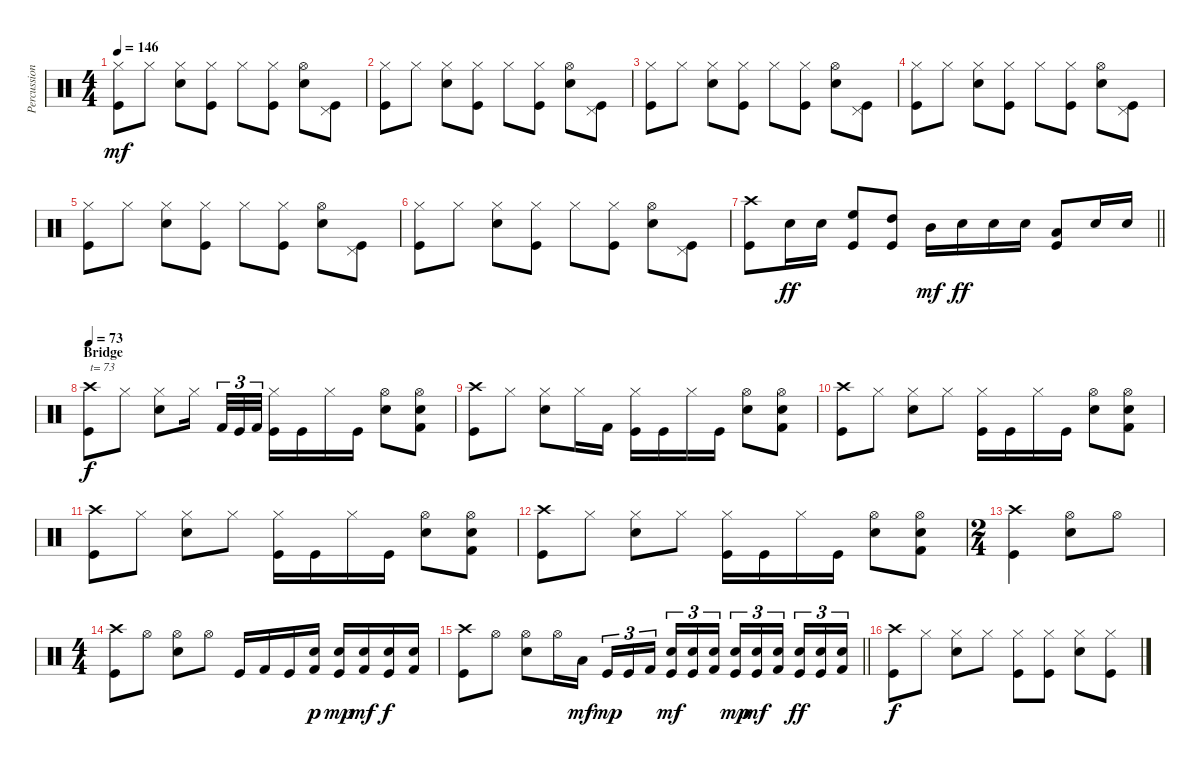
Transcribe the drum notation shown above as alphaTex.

\track ("Percussion" "Percussion") {instrument percussion}
\staff {score}
\articulation defaults
\ts (4 4)
\tempo 146
\clef neutral
\ks c
("Hi-Hat (closed)" "Kick (hit)").8{dy mf} "Hi-Hat (closed)".8 ("Hi-Hat (closed)" "Snare (hit) 2").8 ("Hi-Hat (closed)" "Kick (hit)").8 "Hi-Hat (closed)".8 ("Hi-Hat (closed)" "Kick (hit)").8 ("Hi-Hat (open)" "Snare (hit) 2").8 ("Pedal Hi-Hat (hit)" "Kick (hit)").8 |
("Hi-Hat (closed)" "Kick (hit)").8 "Hi-Hat (closed)".8 ("Hi-Hat (closed)" "Snare (hit) 2").8 ("Hi-Hat (closed)" "Kick (hit)").8 "Hi-Hat (closed)".8 ("Hi-Hat (closed)" "Kick (hit)").8 ("Hi-Hat (open)" "Snare (hit) 2").8 ("Pedal Hi-Hat (hit)" "Kick (hit)").8 |
("Hi-Hat (closed)" "Kick (hit)").8 "Hi-Hat (closed)".8 ("Hi-Hat (closed)" "Snare (hit) 2").8 ("Hi-Hat (closed)" "Kick (hit)").8 "Hi-Hat (closed)".8 ("Hi-Hat (closed)" "Kick (hit)").8 ("Hi-Hat (open)" "Snare (hit) 2").8 ("Pedal Hi-Hat (hit)" "Kick (hit)").8 |
("Hi-Hat (closed)" "Kick (hit)").8 "Hi-Hat (closed)".8 ("Hi-Hat (closed)" "Snare (hit) 2").8 ("Hi-Hat (closed)" "Kick (hit)").8 "Hi-Hat (closed)".8 ("Hi-Hat (closed)" "Kick (hit)").8 ("Hi-Hat (open)" "Snare (hit) 2").8 ("Pedal Hi-Hat (hit)" "Kick (hit)").8 |
("Hi-Hat (closed)" "Kick (hit)").8 "Hi-Hat (closed)".8 ("Hi-Hat (closed)" "Snare (hit) 2").8 ("Hi-Hat (closed)" "Kick (hit)").8 "Hi-Hat (closed)".8 ("Hi-Hat (closed)" "Kick (hit)").8 ("Hi-Hat (open)" "Snare (hit) 2").8 ("Pedal Hi-Hat (hit)" "Kick (hit)").8 |
("Hi-Hat (closed)" "Kick (hit)").8 "Hi-Hat (closed)".8 ("Hi-Hat (closed)" "Snare (hit) 2").8 ("Hi-Hat (closed)" "Kick (hit)").8 "Hi-Hat (closed)".8 ("Hi-Hat (closed)" "Kick (hit)").8 ("Hi-Hat (open)" "Snare (hit) 2").8 ("Pedal Hi-Hat (hit)" "Kick (hit)").8 |
\barLineRight lightlight
("Crash high (hit)" "Kick (hit)").8 "Snare (hit) 2".16{dy ff} "Snare (hit) 2".16 ("High Floor Tom (hit)" "Kick (hit)").8 ("High Tom (hit)" "Kick (hit)").8 "Mid Tom (hit)".16{dy mf} "Snare (hit) 2".16{dy ff} "Snare (hit) 2".16 "Snare (hit) 2".16 ("Low Tom (hit)" "Kick (hit)").8 "Snare (hit) 2".16 "Snare (hit) 2".16 |
\section ("" "Bridge")
\tempo 73
("Crash high (hit)" "Kick (hit)").8{txt "t= 73" dy f} "Hi-Hat (closed)".8 ("Hi-Hat (closed)" "Snare (hit) 2").8 "Hi-Hat (closed)".16 "Kick (hit) 2".32{tu (3 2)} "Kick (hit)".32{tu (3 2)} "Kick (hit) 2".32{tu (3 2)} ("Hi-Hat (closed)" "Kick (hit)").16 "Kick (hit)".16 "Hi-Hat (closed)".16 "Kick (hit)".16 ("Hi-Hat (open)" "Snare (hit) 2").8 ("Hi-Hat (open)" "Snare (hit) 2" "Kick (hit) 2").8 |
("Crash high (hit)" "Kick (hit)").8 "Hi-Hat (closed)".8 ("Hi-Hat (closed)" "Snare (hit) 2").8 "Hi-Hat (closed)".16 "Kick (hit) 2".16 ("Hi-Hat (closed)" "Kick (hit)").16 "Kick (hit)".16 "Hi-Hat (closed)".16 "Kick (hit)".16 ("Hi-Hat (open)" "Snare (hit) 2").8 ("Hi-Hat (open)" "Snare (hit) 2" "Kick (hit) 2").8 |
("Crash high (hit)" "Kick (hit)").8 "Hi-Hat (closed)".8 ("Hi-Hat (closed)" "Snare (hit) 2").8 "Hi-Hat (closed)".8 ("Hi-Hat (closed)" "Kick (hit)").16 "Kick (hit)".16 "Hi-Hat (closed)".16 "Kick (hit)".16 ("Hi-Hat (open)" "Snare (hit) 2").8 ("Hi-Hat (open)" "Snare (hit) 2" "Kick (hit) 2").8 |
("Crash high (hit)" "Kick (hit)").8 "Hi-Hat (closed)".8 ("Hi-Hat (closed)" "Snare (hit) 2").8 "Hi-Hat (closed)".8 ("Hi-Hat (closed)" "Kick (hit)").16 "Kick (hit)".16 "Hi-Hat (closed)".16 "Kick (hit)".16 ("Hi-Hat (open)" "Snare (hit) 2").8 ("Hi-Hat (open)" "Snare (hit) 2" "Kick (hit) 2").8 |
("Crash high (hit)" "Kick (hit)").8 "Hi-Hat (closed)".8 ("Hi-Hat (closed)" "Snare (hit) 2").8 "Hi-Hat (closed)".8 ("Hi-Hat (closed)" "Kick (hit)").16 "Kick (hit)".16 "Hi-Hat (closed)".16 "Kick (hit)".16 ("Hi-Hat (open)" "Snare (hit) 2").8 ("Hi-Hat (open)" "Snare (hit) 2" "Kick (hit) 2").8 |
\ts (2 4)
("Crash high (hit)" "Kick (hit)").4 ("Hi-Hat (open)" "Snare (hit) 2").8 "Hi-Hat (open)".8 |
\ts (4 4)
("Crash high (hit)" "Kick (hit)").8 "Hi-Hat (open)".8 ("Hi-Hat (open)" "Snare (hit) 2").8 "Hi-Hat (open)".8 "Kick (hit)".16 "Kick (hit) 2".16 "Kick (hit)".16 ("Snare (hit) 2" "Kick (hit) 2").16{dy p} ("Snare (hit) 2" "Kick (hit)").16{dy mp} ("Snare (hit) 2" "Kick (hit) 2").16{dy mf} ("Snare (hit) 2" "Kick (hit)").16{dy f} ("Snare (hit) 2" "Kick (hit) 2").16 |
\barLineRight lightlight
("Crash high (hit)" "Kick (hit)").8 "Hi-Hat (open)".8 ("Hi-Hat (open)" "Snare (hit) 2").8 "Hi-Hat (open)".16 "Low Floor Tom (hit)".16{dy mf} "Kick (hit)".16{tu (3 2) dy mp} "Kick (hit)".16{tu (3 2)} "Kick (hit) 2".16{tu (3 2)} ("Snare (hit) 2" "Kick (hit)").16{tu (3 2) dy mf} ("Snare (hit) 2" "Kick (hit)").16{tu (3 2)} ("Snare (hit) 2" "Kick (hit) 2").16{tu (3 2)} ("Snare (hit) 2" "Kick (hit)").16{tu (3 2) dy mp} ("Snare (hit) 2" "Kick (hit)").16{tu (3 2) dy mf} ("Snare (hit) 2" "Kick (hit) 2").16{tu (3 2)} ("Snare (hit) 2" "Kick (hit)").16{tu (3 2) dy ff} ("Snare (hit) 2" "Kick (hit)").16{tu (3 2)} ("Snare (hit) 2" "Kick (hit) 2").16{tu (3 2)} |
("Crash high (hit)" "Kick (hit)").8{dy f} "Hi-Hat (closed)".8 ("Hi-Hat (closed)" "Snare (hit) 2").8 "Hi-Hat (closed)".8 ("Hi-Hat (closed)" "Kick (hit)").8 ("Hi-Hat (closed)" "Kick (hit)").8 ("Hi-Hat (closed)" "Snare (hit) 2").8 ("Hi-Hat (closed)" "Kick (hit)").8
